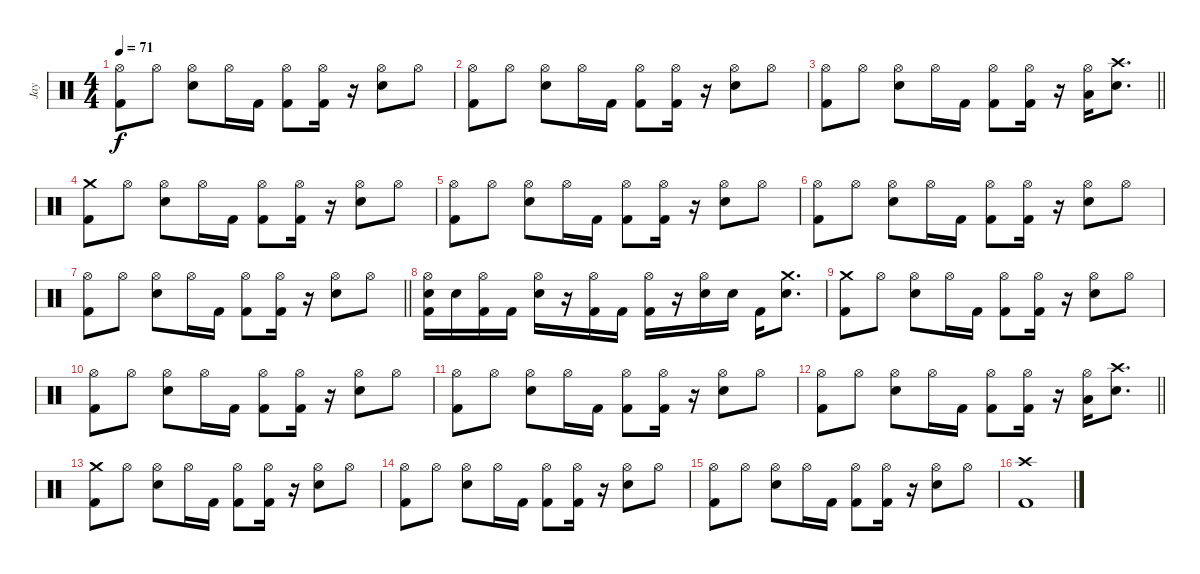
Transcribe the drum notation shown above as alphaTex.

\track ("Jay " "Jay ") {instrument percussion}
\staff {score}
\articulation defaults
\ts (4 4)
\tempo 71
\clef neutral
\ks c
("Hi-Hat (open)" "Kick (hit) 2").8{dy f} "Hi-Hat (open)".8 ("Hi-Hat (open)" "Snare (hit) 2").8 "Hi-Hat (open)".16 "Kick (hit) 2".16 ("Hi-Hat (open)" "Kick (hit) 2").8 ("Hi-Hat (open)" "Kick (hit) 2").16 r.16 ("Hi-Hat (open)" "Snare (hit) 2").8 "Hi-Hat (open)".8 |
("Hi-Hat (open)" "Kick (hit) 2").8 "Hi-Hat (open)".8 ("Hi-Hat (open)" "Snare (hit) 2").8 "Hi-Hat (open)".16 "Kick (hit) 2".16 ("Hi-Hat (open)" "Kick (hit) 2").8 ("Hi-Hat (open)" "Kick (hit) 2").16 r.16 ("Hi-Hat (open)" "Snare (hit) 2").8 "Hi-Hat (open)".8 |
\barLineRight lightlight
("Hi-Hat (open)" "Kick (hit) 2").8 "Hi-Hat (open)".8 ("Hi-Hat (open)" "Snare (hit) 2").8 "Hi-Hat (open)".16 "Kick (hit) 2".16 ("Hi-Hat (open)" "Kick (hit) 2").8 ("Hi-Hat (open)" "Kick (hit) 2").16 r.16 ("Hi-Hat (open)" "Low Tom (hit)").16 ("Crash high (hit)" "Snare (hit) 2").8{d} |
("Crash medium (hit)" "Kick (hit) 2").8 "Hi-Hat (open)".8 ("Hi-Hat (open)" "Snare (hit) 2").8 "Hi-Hat (open)".16 "Kick (hit) 2".16 ("Hi-Hat (open)" "Kick (hit) 2").8 ("Hi-Hat (open)" "Kick (hit) 2").16 r.16 ("Hi-Hat (open)" "Snare (hit) 2").8 "Hi-Hat (open)".8 |
("Hi-Hat (open)" "Kick (hit) 2").8 "Hi-Hat (open)".8 ("Hi-Hat (open)" "Snare (hit) 2").8 "Hi-Hat (open)".16 "Kick (hit) 2".16 ("Hi-Hat (open)" "Kick (hit) 2").8 ("Hi-Hat (open)" "Kick (hit) 2").16 r.16 ("Hi-Hat (open)" "Snare (hit) 2").8 "Hi-Hat (open)".8 |
("Hi-Hat (open)" "Kick (hit) 2").8 "Hi-Hat (open)".8 ("Hi-Hat (open)" "Snare (hit) 2").8 "Hi-Hat (open)".16 "Kick (hit) 2".16 ("Hi-Hat (open)" "Kick (hit) 2").8 ("Hi-Hat (open)" "Kick (hit) 2").16 r.16 ("Hi-Hat (open)" "Snare (hit) 2").8 "Hi-Hat (open)".8 |
\barLineRight lightlight
("Hi-Hat (open)" "Kick (hit) 2").8 "Hi-Hat (open)".8 ("Hi-Hat (open)" "Snare (hit) 2").8 "Hi-Hat (open)".16 "Kick (hit) 2".16 ("Hi-Hat (open)" "Kick (hit) 2").8 ("Hi-Hat (open)" "Kick (hit) 2").16 r.16 ("Hi-Hat (open)" "Snare (hit) 2").8 "Hi-Hat (open)".8 |
("Hi-Hat (open)" "Kick (hit) 2" "Snare (hit) 2").16 "Snare (hit) 2".16 ("Hi-Hat (open)" "Kick (hit) 2").16 "Kick (hit) 2".16 ("Hi-Hat (open)" "Snare (hit) 2").16 r.16 ("Hi-Hat (open)" "Kick (hit) 2").16 "Kick (hit) 2".16 ("Hi-Hat (open)" "Kick (hit) 2").16 r.16 ("Hi-Hat (open)" "Snare (hit) 2").16 "Snare (hit) 2".16 "Kick (hit) 2".16 ("Crash medium (hit)" "Snare (hit) 2").8{d} |
("Crash medium (hit)" "Kick (hit) 2").8 "Hi-Hat (open)".8 ("Hi-Hat (open)" "Snare (hit) 2").8 "Hi-Hat (open)".16 "Kick (hit) 2".16 ("Hi-Hat (open)" "Kick (hit) 2").8 ("Hi-Hat (open)" "Kick (hit) 2").16 r.16 ("Hi-Hat (open)" "Snare (hit) 2").8 "Hi-Hat (open)".8 |
("Hi-Hat (open)" "Kick (hit) 2").8 "Hi-Hat (open)".8 ("Hi-Hat (open)" "Snare (hit) 2").8 "Hi-Hat (open)".16 "Kick (hit) 2".16 ("Hi-Hat (open)" "Kick (hit) 2").8 ("Hi-Hat (open)" "Kick (hit) 2").16 r.16 ("Hi-Hat (open)" "Snare (hit) 2").8 "Hi-Hat (open)".8 |
("Hi-Hat (open)" "Kick (hit) 2").8 "Hi-Hat (open)".8 ("Hi-Hat (open)" "Snare (hit) 2").8 "Hi-Hat (open)".16 "Kick (hit) 2".16 ("Hi-Hat (open)" "Kick (hit) 2").8 ("Hi-Hat (open)" "Kick (hit) 2").16 r.16 ("Hi-Hat (open)" "Snare (hit) 2").8 "Hi-Hat (open)".8 |
\barLineRight lightlight
("Hi-Hat (open)" "Kick (hit) 2").8 "Hi-Hat (open)".8 ("Hi-Hat (open)" "Snare (hit) 2").8 "Hi-Hat (open)".16 "Kick (hit) 2".16 ("Hi-Hat (open)" "Kick (hit) 2").8 ("Hi-Hat (open)" "Kick (hit) 2").16 r.16 ("Hi-Hat (open)" "Low Tom (hit)").16 ("Crash high (hit)" "Snare (hit) 2").8{d} |
("Crash medium (hit)" "Kick (hit) 2").8 "Hi-Hat (open)".8 ("Hi-Hat (open)" "Snare (hit) 2").8 "Hi-Hat (open)".16 "Kick (hit) 2".16 ("Hi-Hat (open)" "Kick (hit) 2").8 ("Hi-Hat (open)" "Kick (hit) 2").16 r.16 ("Hi-Hat (open)" "Snare (hit) 2").8 "Hi-Hat (open)".8 |
("Hi-Hat (open)" "Kick (hit) 2").8 "Hi-Hat (open)".8 ("Hi-Hat (open)" "Snare (hit) 2").8 "Hi-Hat (open)".16 "Kick (hit) 2".16 ("Hi-Hat (open)" "Kick (hit) 2").8 ("Hi-Hat (open)" "Kick (hit) 2").16 r.16 ("Hi-Hat (open)" "Snare (hit) 2").8 "Hi-Hat (open)".8 |
("Hi-Hat (open)" "Kick (hit) 2").8 "Hi-Hat (open)".8 ("Hi-Hat (open)" "Snare (hit) 2").8 "Hi-Hat (open)".16 "Kick (hit) 2".16 ("Hi-Hat (open)" "Kick (hit) 2").8 ("Hi-Hat (open)" "Kick (hit) 2").16 r.16 ("Hi-Hat (open)" "Snare (hit) 2").8 "Hi-Hat (open)".8 |
("Crash high (hit)" "Kick (hit) 2").1
